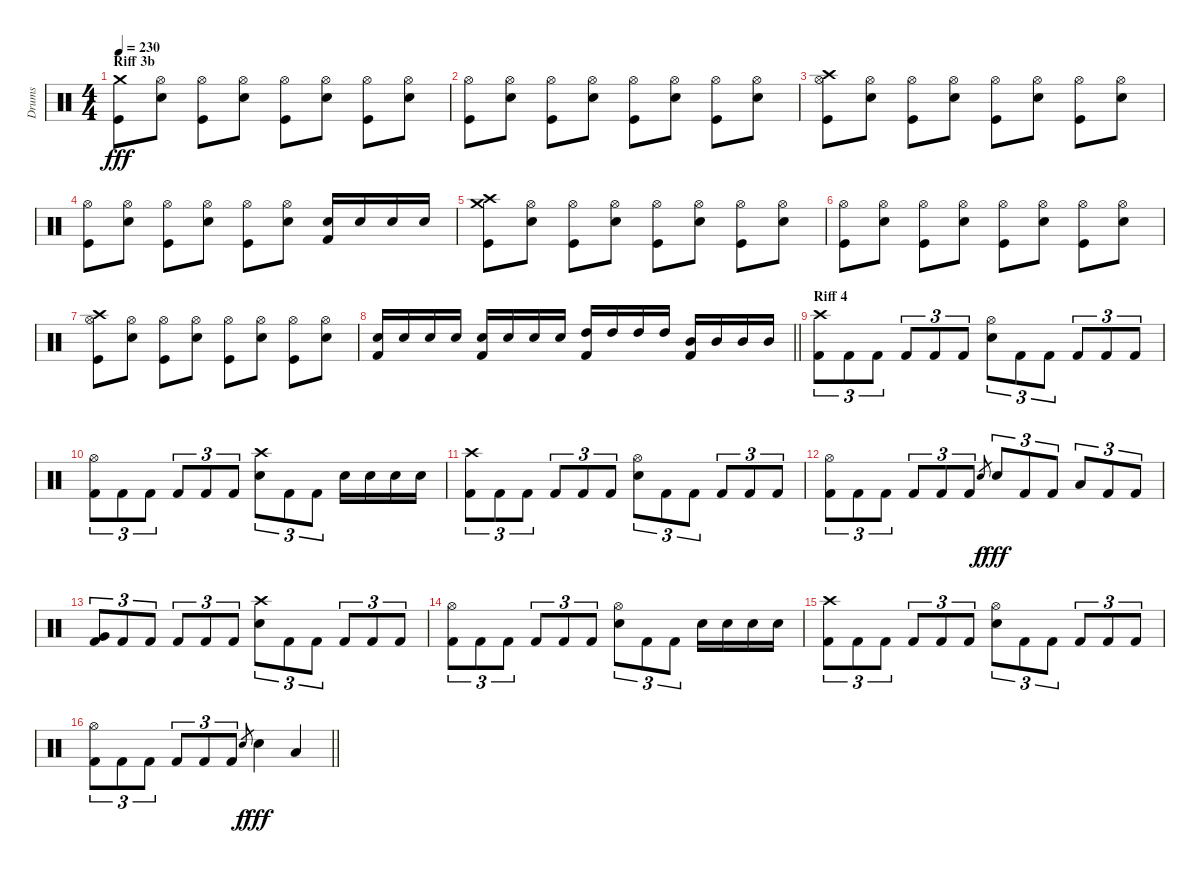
\track ("Drums" "Drums") {instrument percussion}
\staff {score}
\articulation defaults
\ts (4 4)
\section ("" "Riff 3b")
\tempo 230
\clef neutral
\ks c
("Crash medium (hit)" "Kick (hit)").8{dy fff} ("Hi-Hat (open)" "Snare (hit) 2").8 ("Hi-Hat (open)" "Kick (hit)").8 ("Hi-Hat (open)" "Snare (hit) 2").8 ("Hi-Hat (open)" "Kick (hit)").8 ("Hi-Hat (open)" "Snare (hit) 2").8 ("Hi-Hat (open)" "Kick (hit)").8 ("Hi-Hat (open)" "Snare (hit) 2").8 |
("Hi-Hat (open)" "Kick (hit)").8 ("Hi-Hat (open)" "Snare (hit) 2").8 ("Hi-Hat (open)" "Kick (hit)").8 ("Hi-Hat (open)" "Snare (hit) 2").8 ("Hi-Hat (open)" "Kick (hit)").8 ("Hi-Hat (open)" "Snare (hit) 2").8 ("Hi-Hat (open)" "Kick (hit)").8 ("Hi-Hat (open)" "Snare (hit) 2").8 |
("Crash high (hit)" "Hi-Hat (open)" "Kick (hit)").8 ("Hi-Hat (open)" "Snare (hit) 2").8 ("Hi-Hat (open)" "Kick (hit)").8 ("Hi-Hat (open)" "Snare (hit) 2").8 ("Hi-Hat (open)" "Kick (hit)").8 ("Hi-Hat (open)" "Snare (hit) 2").8 ("Hi-Hat (open)" "Kick (hit)").8 ("Hi-Hat (open)" "Snare (hit) 2").8 |
("Hi-Hat (open)" "Kick (hit)").8 ("Hi-Hat (open)" "Snare (hit) 2").8 ("Hi-Hat (open)" "Kick (hit)").8 ("Hi-Hat (open)" "Snare (hit) 2").8 ("Hi-Hat (open)" "Kick (hit)").8 ("Hi-Hat (open)" "Snare (hit) 2").8 ("Electric Snare (hit)" "Kick (hit) 2").16 "Electric Snare (hit)".16 "Electric Snare (hit)".16 "Electric Snare (hit)".16 |
("Crash medium (hit)" "Crash high (hit)" "Kick (hit)").8 ("Hi-Hat (open)" "Snare (hit) 2").8 ("Hi-Hat (open)" "Kick (hit)").8 ("Hi-Hat (open)" "Snare (hit) 2").8 ("Hi-Hat (open)" "Kick (hit)").8 ("Hi-Hat (open)" "Snare (hit) 2").8 ("Hi-Hat (open)" "Kick (hit)").8 ("Hi-Hat (open)" "Snare (hit) 2").8 |
("Hi-Hat (open)" "Kick (hit)").8 ("Hi-Hat (open)" "Snare (hit) 2").8 ("Hi-Hat (open)" "Kick (hit)").8 ("Hi-Hat (open)" "Snare (hit) 2").8 ("Hi-Hat (open)" "Kick (hit)").8 ("Hi-Hat (open)" "Snare (hit) 2").8 ("Hi-Hat (open)" "Kick (hit)").8 ("Hi-Hat (open)" "Snare (hit) 2").8 |
("Crash high (hit)" "Hi-Hat (open)" "Kick (hit)").8 ("Hi-Hat (open)" "Snare (hit) 2").8 ("Hi-Hat (open)" "Kick (hit)").8 ("Hi-Hat (open)" "Snare (hit) 2").8 ("Hi-Hat (open)" "Kick (hit)").8 ("Hi-Hat (open)" "Snare (hit) 2").8 ("Hi-Hat (open)" "Kick (hit)").8 ("Hi-Hat (open)" "Snare (hit) 2").8 |
\barLineRight lightlight
("Electric Snare (hit)" "Kick (hit) 2").16 "Electric Snare (hit)".16 "Electric Snare (hit)".16 "Electric Snare (hit)".16 ("Electric Snare (hit)" "Kick (hit) 2").16 "Electric Snare (hit)".16 "Electric Snare (hit)".16 "Electric Snare (hit)".16 ("High Tom (hit)" "Kick (hit) 2").16 "High Tom (hit)".16 "High Tom (hit)".16 "High Tom (hit)".16 ("Mid Tom (hit)" "Kick (hit) 2").16 "Mid Tom (hit)".16 "Mid Tom (hit)".16 "Mid Tom (hit)".16 |
\section ("" "Riff 4")
("Crash high (hit)" "Kick (hit) 2").8{tu (3 2)} "Kick (hit) 2".8{tu (3 2)} "Kick (hit) 2".8{tu (3 2)} "Kick (hit) 2".8{tu (3 2)} "Kick (hit) 2".8{tu (3 2)} "Kick (hit) 2".8{tu (3 2)} ("Hi-Hat (open)" "Electric Snare (hit)").8{tu (3 2)} "Kick (hit) 2".8{tu (3 2)} "Kick (hit) 2".8{tu (3 2)} "Kick (hit) 2".8{tu (3 2)} "Kick (hit) 2".8{tu (3 2)} "Kick (hit) 2".8{tu (3 2)} |
("Hi-Hat (open)" "Kick (hit) 2").8{tu (3 2)} "Kick (hit) 2".8{tu (3 2)} "Kick (hit) 2".8{tu (3 2)} "Kick (hit) 2".8{tu (3 2)} "Kick (hit) 2".8{tu (3 2)} "Kick (hit) 2".8{tu (3 2)} ("Crash high (hit)" "Electric Snare (hit)").8{tu (3 2)} "Kick (hit) 2".8{tu (3 2)} "Kick (hit) 2".8{tu (3 2)} "Electric Snare (hit)".16 "Electric Snare (hit)".16 "Electric Snare (hit)".16 "Electric Snare (hit)".16 |
("Crash high (hit)" "Kick (hit) 2").8{tu (3 2)} "Kick (hit) 2".8{tu (3 2)} "Kick (hit) 2".8{tu (3 2)} "Kick (hit) 2".8{tu (3 2)} "Kick (hit) 2".8{tu (3 2)} "Kick (hit) 2".8{tu (3 2)} ("Hi-Hat (open)" "Electric Snare (hit)").8{tu (3 2)} "Kick (hit) 2".8{tu (3 2)} "Kick (hit) 2".8{tu (3 2)} "Kick (hit) 2".8{tu (3 2)} "Kick (hit) 2".8{tu (3 2)} "Kick (hit) 2".8{tu (3 2)} |
("Hi-Hat (open)" "Kick (hit) 2").8{tu (3 2)} "Kick (hit) 2".8{tu (3 2)} "Kick (hit) 2".8{tu (3 2)} "Kick (hit) 2".8{tu (3 2)} "Kick (hit) 2".8{tu (3 2)} "Kick (hit) 2".8{tu (3 2)} "Electric Snare (hit)".8{gr dy f} "Electric Snare (hit)".8{tu (3 2) dy fff} "Kick (hit) 2".8{tu (3 2)} "Kick (hit) 2".8{tu (3 2)} "Low Tom (hit)".8{tu (3 2)} "Kick (hit) 2".8{tu (3 2)} "Kick (hit) 2".8{tu (3 2)} |
("Very Low Tom (hit)" "Kick (hit) 2").8{tu (3 2)} "Kick (hit) 2".8{tu (3 2)} "Kick (hit) 2".8{tu (3 2)} "Kick (hit) 2".8{tu (3 2)} "Kick (hit) 2".8{tu (3 2)} "Kick (hit) 2".8{tu (3 2)} ("Crash high (hit)" "Electric Snare (hit)").8{tu (3 2)} "Kick (hit) 2".8{tu (3 2)} "Kick (hit) 2".8{tu (3 2)} "Kick (hit) 2".8{tu (3 2)} "Kick (hit) 2".8{tu (3 2)} "Kick (hit) 2".8{tu (3 2)} |
("Hi-Hat (open)" "Kick (hit) 2").8{tu (3 2)} "Kick (hit) 2".8{tu (3 2)} "Kick (hit) 2".8{tu (3 2)} "Kick (hit) 2".8{tu (3 2)} "Kick (hit) 2".8{tu (3 2)} "Kick (hit) 2".8{tu (3 2)} ("Hi-Hat (open)" "Electric Snare (hit)").8{tu (3 2)} "Kick (hit) 2".8{tu (3 2)} "Kick (hit) 2".8{tu (3 2)} "Electric Snare (hit)".16 "Electric Snare (hit)".16 "Electric Snare (hit)".16 "Electric Snare (hit)".16 |
("Crash high (hit)" "Kick (hit) 2").8{tu (3 2)} "Kick (hit) 2".8{tu (3 2)} "Kick (hit) 2".8{tu (3 2)} "Kick (hit) 2".8{tu (3 2)} "Kick (hit) 2".8{tu (3 2)} "Kick (hit) 2".8{tu (3 2)} ("Hi-Hat (open)" "Electric Snare (hit)").8{tu (3 2)} "Kick (hit) 2".8{tu (3 2)} "Kick (hit) 2".8{tu (3 2)} "Kick (hit) 2".8{tu (3 2)} "Kick (hit) 2".8{tu (3 2)} "Kick (hit) 2".8{tu (3 2)} |
\barLineRight lightlight
("Hi-Hat (open)" "Kick (hit) 2").8{tu (3 2)} "Kick (hit) 2".8{tu (3 2)} "Kick (hit) 2".8{tu (3 2)} "Kick (hit) 2".8{tu (3 2)} "Kick (hit) 2".8{tu (3 2)} "Kick (hit) 2".8{tu (3 2)} "Electric Snare (hit)".8{gr dy f} "Electric Snare (hit)".4{dy fff} "Low Tom (hit)".4
